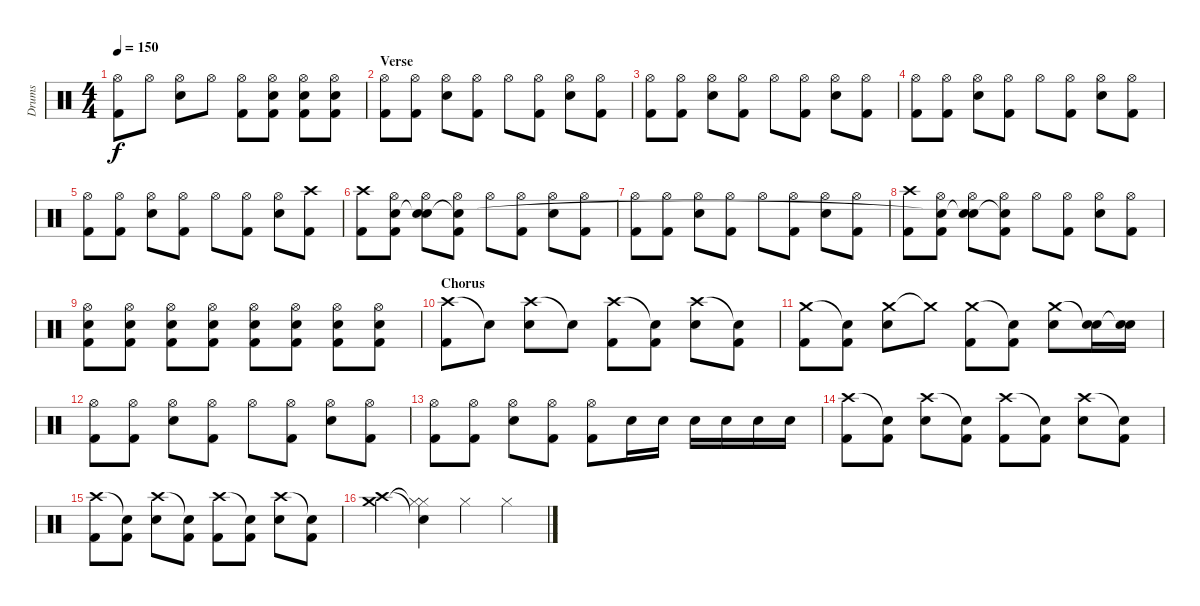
\track ("Drums" "Drums") {instrument percussion}
\staff {score}
\articulation defaults
\ts (4 4)
\tempo 150
\clef neutral
\ks c
("Hi-Hat (open)" "Kick (hit) 2").8{dy f} "Hi-Hat (open)".8 ("Hi-Hat (open)" "Electric Snare (hit)").8 "Hi-Hat (open)".8 ("Hi-Hat (open)" "Kick (hit) 2").8 ("Hi-Hat (open)" "Kick (hit) 2" "Electric Snare (hit)").8 ("Hi-Hat (open)" "Kick (hit) 2" "Electric Snare (hit)").8 ("Hi-Hat (open)" "Kick (hit) 2" "Electric Snare (hit)").8 |
\section ("" "Verse")
("Hi-Hat (open)" "Kick (hit) 2").8 ("Hi-Hat (open)" "Kick (hit) 2").8 ("Hi-Hat (open)" "Electric Snare (hit)").8 ("Hi-Hat (open)" "Kick (hit) 2").8 "Hi-Hat (open)".8 ("Hi-Hat (open)" "Kick (hit) 2").8 ("Hi-Hat (open)" "Electric Snare (hit)").8 ("Hi-Hat (open)" "Kick (hit) 2").8 |
("Hi-Hat (open)" "Kick (hit) 2").8 ("Hi-Hat (open)" "Kick (hit) 2").8 ("Hi-Hat (open)" "Electric Snare (hit)").8 ("Hi-Hat (open)" "Kick (hit) 2").8 "Hi-Hat (open)".8 ("Hi-Hat (open)" "Kick (hit) 2").8 ("Hi-Hat (open)" "Electric Snare (hit)").8 ("Hi-Hat (open)" "Kick (hit) 2").8 |
("Hi-Hat (open)" "Kick (hit) 2").8 ("Hi-Hat (open)" "Kick (hit) 2").8 ("Hi-Hat (open)" "Electric Snare (hit)").8 ("Hi-Hat (open)" "Kick (hit) 2").8 "Hi-Hat (open)".8 ("Hi-Hat (open)" "Kick (hit) 2").8 ("Hi-Hat (open)" "Electric Snare (hit)").8 ("Hi-Hat (open)" "Kick (hit) 2").8 |
("Hi-Hat (open)" "Kick (hit) 2").8 ("Hi-Hat (open)" "Kick (hit) 2").8 ("Hi-Hat (open)" "Electric Snare (hit)").8 ("Hi-Hat (open)" "Kick (hit) 2").8 "Hi-Hat (open)".8 ("Hi-Hat (open)" "Kick (hit) 2").8 ("Hi-Hat (open)" "Electric Snare (hit)").8 ("Kick (hit) 2" "Crash high (hit)").8 |
("Kick (hit) 2" "Crash high (hit)").8 ("Hi-Hat (open)" "Kick (hit) 2" "Snare (hit)").8 ("Hi-Hat (open)" "Electric Snare (hit)" "Snare (hit)"{t}).8 ("Hi-Hat (open)" "Kick (hit) 2" "Snare (hit)"{t}).8 "Hi-Hat (open)".8 ("Hi-Hat (open)" "Kick (hit) 2").8 ("Hi-Hat (open)" "Electric Snare (hit)").8 ("Hi-Hat (open)" "Kick (hit) 2").8 |
("Hi-Hat (open)" "Kick (hit) 2").8 ("Hi-Hat (open)" "Kick (hit) 2").8 ("Hi-Hat (open)" "Electric Snare (hit)").8 ("Hi-Hat (open)" "Kick (hit) 2").8 "Hi-Hat (open)".8 ("Hi-Hat (open)" "Kick (hit) 2").8 ("Hi-Hat (open)" "Electric Snare (hit)").8 ("Hi-Hat (open)" "Kick (hit) 2").8 |
("Kick (hit) 2" "Crash high (hit)").8 ("Hi-Hat (open)" "Kick (hit) 2" "Snare (hit)"{t}).8 ("Hi-Hat (open)" "Electric Snare (hit)" "Snare (hit)"{t}).8 ("Hi-Hat (open)" "Kick (hit) 2" "Snare (hit)"{t}).8 "Hi-Hat (open)".8 ("Hi-Hat (open)" "Kick (hit) 2").8 ("Hi-Hat (open)" "Electric Snare (hit)").8 ("Hi-Hat (open)" "Kick (hit) 2").8 |
("Hi-Hat (open)" "Electric Snare (hit)" "Kick (hit) 2").8 ("Hi-Hat (open)" "Electric Snare (hit)" "Kick (hit) 2").8 ("Hi-Hat (open)" "Electric Snare (hit)" "Kick (hit) 2").8 ("Hi-Hat (open)" "Electric Snare (hit)" "Kick (hit) 2").8 ("Hi-Hat (open)" "Electric Snare (hit)" "Kick (hit) 2").8 ("Hi-Hat (open)" "Electric Snare (hit)" "Kick (hit) 2").8 ("Hi-Hat (open)" "Electric Snare (hit)" "Kick (hit) 2").8 ("Hi-Hat (open)" "Electric Snare (hit)" "Kick (hit) 2").8 |
\section ("" "Chorus")
("Crash high (hit)" "Kick (hit) 2").8 "Snare (hit)"{t}.8 ("Crash high (hit)" "Electric Snare (hit)").8 "Snare (hit)"{t}.8 ("Crash high (hit)" "Kick (hit) 2").8 ("Snare (hit)"{t} "Kick (hit) 2").8 ("Crash high (hit)" "Electric Snare (hit)").8 ("Snare (hit)"{t} "Kick (hit) 2").8 |
("Crash medium (hit)" "Kick (hit) 2").8 ("Snare (hit)"{t} "Kick (hit) 2").8 ("Crash medium (hit)" "Electric Snare (hit)").8 "Crash medium (hit)"{t}.8 ("Crash medium (hit)" "Kick (hit) 2").8 ("Snare (hit)"{t} "Kick (hit) 2").8 ("Crash medium (hit)" "Electric Snare (hit)").8 ("Snare (hit)"{t} "Electric Snare (hit)").16 ("Snare (hit)"{t} "Electric Snare (hit)").16 |
("Hi-Hat (open)" "Kick (hit) 2").8 ("Hi-Hat (open)" "Kick (hit) 2").8 ("Hi-Hat (open)" "Electric Snare (hit)").8 ("Hi-Hat (open)" "Kick (hit) 2").8 "Hi-Hat (open)".8 ("Hi-Hat (open)" "Kick (hit) 2").8 ("Hi-Hat (open)" "Electric Snare (hit)").8 ("Hi-Hat (open)" "Kick (hit) 2").8 |
("Hi-Hat (open)" "Kick (hit) 2").8 ("Hi-Hat (open)" "Kick (hit) 2").8 ("Hi-Hat (open)" "Electric Snare (hit)").8 ("Hi-Hat (open)" "Kick (hit) 2").8 ("Hi-Hat (open)" "Kick (hit) 2").8 "Electric Snare (hit)".16 "Electric Snare (hit)".16 "Electric Snare (hit)".16 "Electric Snare (hit)".16 "Electric Snare (hit)".16 "Electric Snare (hit)".16 |
("Crash high (hit)" "Kick (hit) 2").8 ("Snare (hit)"{t} "Kick (hit) 2").8 ("Crash high (hit)" "Electric Snare (hit)").8 ("Snare (hit)"{t} "Kick (hit) 2").8 ("Crash high (hit)" "Kick (hit) 2").8 ("Snare (hit)"{t} "Kick (hit) 2").8 ("Crash high (hit)" "Electric Snare (hit)").8 ("Snare (hit)"{t} "Kick (hit) 2").8 |
("Crash high (hit)" "Kick (hit) 2").8 ("Snare (hit)"{t} "Kick (hit) 2").8 ("Crash high (hit)" "Electric Snare (hit)").8 ("Snare (hit)"{t} "Kick (hit) 2").8 ("Crash high (hit)" "Kick (hit) 2").8 ("Snare (hit)"{t} "Kick (hit) 2").8 ("Crash high (hit)" "Electric Snare (hit)").8 ("Snare (hit)"{t} "Kick (hit) 2").8 |
("Crash medium (hit)" "Crash high (hit)").4 ("Hi-Hat (closed)"{t} "Snare (hit)"{t} "Hi-Hat (closed)").4 "Hi-Hat (closed)".4 "Hi-Hat (closed)".4
